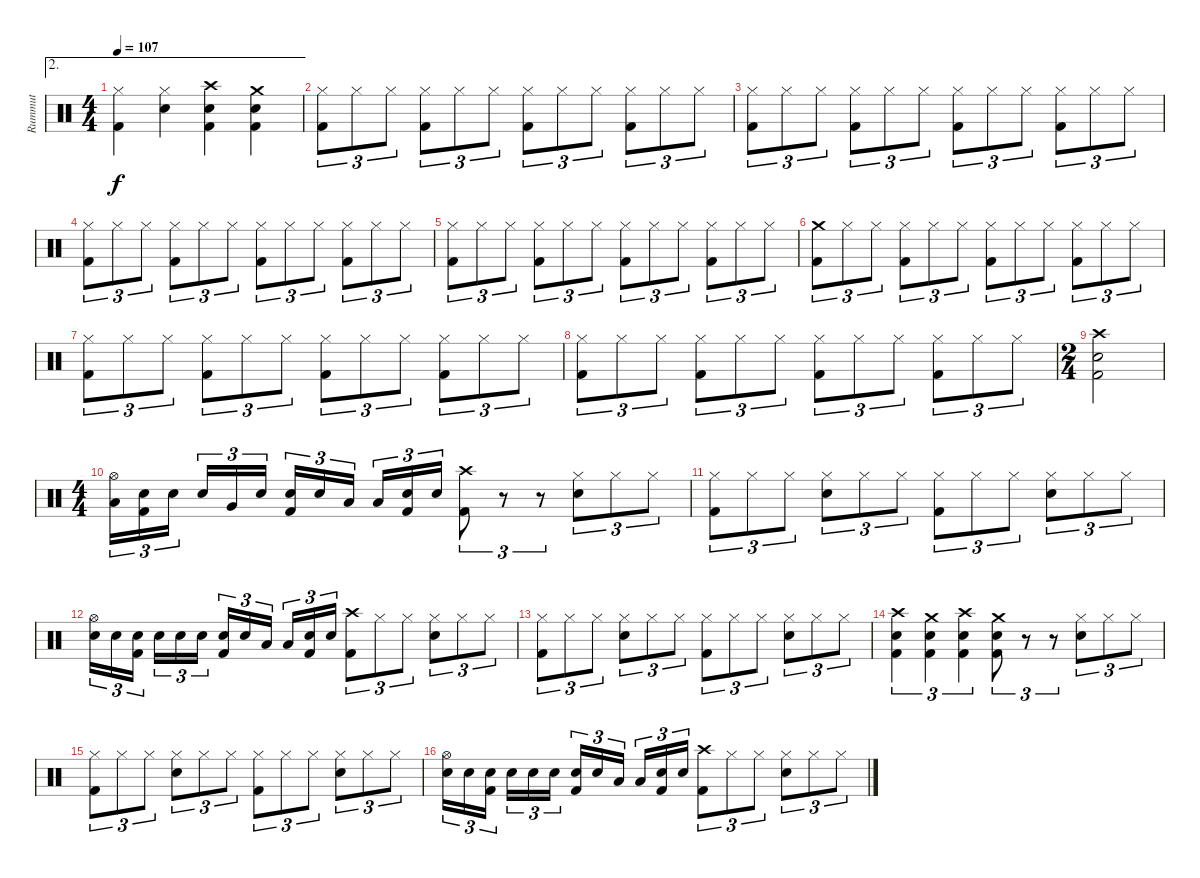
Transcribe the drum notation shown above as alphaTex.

\track ("Rummut" "Rummut") {instrument percussion}
\staff {score}
\articulation defaults
\ae 2
\ts (4 4)
\tempo 107
\clef neutral
\ks c
("Hi-Hat (closed)" "Kick (hit) 2").4{dy f} ("Hi-Hat (closed)" "Snare (hit) 2").4 ("Crash high (hit)" "Snare (hit) 2" "Kick (hit) 2").4 ("Crash medium (hit)" "Snare (hit) 2" "Kick (hit) 2").4 |
("Hi-Hat (closed)" "Kick (hit) 2").8{tu (3 2)} "Hi-Hat (closed)".8{tu (3 2)} "Hi-Hat (closed)".8{tu (3 2)} ("Hi-Hat (closed)" "Kick (hit) 2").8{tu (3 2)} "Hi-Hat (closed)".8{tu (3 2)} "Hi-Hat (closed)".8{tu (3 2)} ("Hi-Hat (closed)" "Kick (hit) 2").8{tu (3 2)} "Hi-Hat (closed)".8{tu (3 2)} "Hi-Hat (closed)".8{tu (3 2)} ("Hi-Hat (closed)" "Kick (hit) 2").8{tu (3 2)} "Hi-Hat (closed)".8{tu (3 2)} "Hi-Hat (closed)".8{tu (3 2)} |
("Hi-Hat (closed)" "Kick (hit) 2").8{tu (3 2)} "Hi-Hat (closed)".8{tu (3 2)} "Hi-Hat (closed)".8{tu (3 2)} ("Hi-Hat (closed)" "Kick (hit) 2").8{tu (3 2)} "Hi-Hat (closed)".8{tu (3 2)} "Hi-Hat (closed)".8{tu (3 2)} ("Hi-Hat (closed)" "Kick (hit) 2").8{tu (3 2)} "Hi-Hat (closed)".8{tu (3 2)} "Hi-Hat (closed)".8{tu (3 2)} ("Hi-Hat (closed)" "Kick (hit) 2").8{tu (3 2)} "Hi-Hat (closed)".8{tu (3 2)} "Hi-Hat (closed)".8{tu (3 2)} |
("Hi-Hat (closed)" "Kick (hit) 2").8{tu (3 2)} "Hi-Hat (closed)".8{tu (3 2)} "Hi-Hat (closed)".8{tu (3 2)} ("Hi-Hat (closed)" "Kick (hit) 2").8{tu (3 2)} "Hi-Hat (closed)".8{tu (3 2)} "Hi-Hat (closed)".8{tu (3 2)} ("Hi-Hat (closed)" "Kick (hit) 2").8{tu (3 2)} "Hi-Hat (closed)".8{tu (3 2)} "Hi-Hat (closed)".8{tu (3 2)} ("Hi-Hat (closed)" "Kick (hit) 2").8{tu (3 2)} "Hi-Hat (closed)".8{tu (3 2)} "Hi-Hat (closed)".8{tu (3 2)} |
("Hi-Hat (closed)" "Kick (hit) 2").8{tu (3 2)} "Hi-Hat (closed)".8{tu (3 2)} "Hi-Hat (closed)".8{tu (3 2)} ("Hi-Hat (closed)" "Kick (hit) 2").8{tu (3 2)} "Hi-Hat (closed)".8{tu (3 2)} "Hi-Hat (closed)".8{tu (3 2)} ("Hi-Hat (closed)" "Kick (hit) 2").8{tu (3 2)} "Hi-Hat (closed)".8{tu (3 2)} "Hi-Hat (closed)".8{tu (3 2)} ("Hi-Hat (closed)" "Kick (hit) 2").8{tu (3 2)} "Hi-Hat (closed)".8{tu (3 2)} "Hi-Hat (closed)".8{tu (3 2)} |
("Crash medium (hit)" "Kick (hit) 2").8{tu (3 2)} "Hi-Hat (closed)".8{tu (3 2)} "Hi-Hat (closed)".8{tu (3 2)} ("Hi-Hat (closed)" "Kick (hit) 2").8{tu (3 2)} "Hi-Hat (closed)".8{tu (3 2)} "Hi-Hat (closed)".8{tu (3 2)} ("Hi-Hat (closed)" "Kick (hit) 2").8{tu (3 2)} "Hi-Hat (closed)".8{tu (3 2)} "Hi-Hat (closed)".8{tu (3 2)} ("Hi-Hat (closed)" "Kick (hit) 2").8{tu (3 2)} "Hi-Hat (closed)".8{tu (3 2)} "Hi-Hat (closed)".8{tu (3 2)} |
("Hi-Hat (closed)" "Kick (hit) 2").8{tu (3 2)} "Hi-Hat (closed)".8{tu (3 2)} "Hi-Hat (closed)".8{tu (3 2)} ("Hi-Hat (closed)" "Kick (hit) 2").8{tu (3 2)} "Hi-Hat (closed)".8{tu (3 2)} "Hi-Hat (closed)".8{tu (3 2)} ("Hi-Hat (closed)" "Kick (hit) 2").8{tu (3 2)} "Hi-Hat (closed)".8{tu (3 2)} "Hi-Hat (closed)".8{tu (3 2)} ("Hi-Hat (closed)" "Kick (hit) 2").8{tu (3 2)} "Hi-Hat (closed)".8{tu (3 2)} "Hi-Hat (closed)".8{tu (3 2)} |
("Hi-Hat (closed)" "Kick (hit) 2").8{tu (3 2)} "Hi-Hat (closed)".8{tu (3 2)} "Hi-Hat (closed)".8{tu (3 2)} ("Hi-Hat (closed)" "Kick (hit) 2").8{tu (3 2)} "Hi-Hat (closed)".8{tu (3 2)} "Hi-Hat (closed)".8{tu (3 2)} ("Hi-Hat (closed)" "Kick (hit) 2").8{tu (3 2)} "Hi-Hat (closed)".8{tu (3 2)} "Hi-Hat (closed)".8{tu (3 2)} ("Hi-Hat (closed)" "Kick (hit) 2").8{tu (3 2)} "Hi-Hat (closed)".8{tu (3 2)} "Hi-Hat (closed)".8{tu (3 2)} |
\ts (2 4)
("Crash high (hit)" "Snare (hit) 2" "Kick (hit) 2").2 |
\ts (4 4)
("Hi-Hat (open)" "Low Tom (hit)").16{tu (3 2)} ("Snare (hit)" "Kick (hit) 2").16{tu (3 2)} "Snare (hit)".16{tu (3 2)} "Snare (hit)".16{tu (3 2)} "Very Low Tom (hit)".16{tu (3 2)} "Snare (hit)".16{tu (3 2)} ("Snare (hit)" "Kick (hit) 2").16{tu (3 2)} "Snare (hit)".16{tu (3 2)} "Low Floor Tom (hit)".16{tu (3 2)} "Low Floor Tom (hit)".16{tu (3 2)} ("Snare (hit)" "Kick (hit) 2").16{tu (3 2)} "Snare (hit)".16{tu (3 2)} ("Crash high (hit)" "Kick (hit) 2").8{tu (3 2)} r.8{tu (3 2)} r.8{tu (3 2)} ("Hi-Hat (closed)" "Snare (hit) 2").8{tu (3 2)} "Hi-Hat (closed)".8{tu (3 2)} "Hi-Hat (closed)".8{tu (3 2)} |
("Hi-Hat (closed)" "Kick (hit) 2").8{tu (3 2)} "Hi-Hat (closed)".8{tu (3 2)} "Hi-Hat (closed)".8{tu (3 2)} ("Hi-Hat (closed)" "Snare (hit) 2").8{tu (3 2)} "Hi-Hat (closed)".8{tu (3 2)} "Hi-Hat (closed)".8{tu (3 2)} ("Hi-Hat (closed)" "Kick (hit) 2").8{tu (3 2)} "Hi-Hat (closed)".8{tu (3 2)} "Hi-Hat (closed)".8{tu (3 2)} ("Hi-Hat (closed)" "Snare (hit) 2").8{tu (3 2)} "Hi-Hat (closed)".8{tu (3 2)} "Hi-Hat (closed)".8{tu (3 2)} |
("Hi-Hat (open)" "Snare (hit) 2").16{tu (3 2)} "Snare (hit)".16{tu (3 2)} ("Snare (hit)" "Kick (hit) 2").16{tu (3 2)} "Snare (hit)".16{tu (3 2)} "Snare (hit) 2".16{tu (3 2)} "Snare (hit)".16{tu (3 2)} ("Snare (hit)" "Kick (hit) 2").16{tu (3 2)} "Snare (hit)".16{tu (3 2)} "Low Tom (hit)".16{tu (3 2)} "Low Tom (hit)".16{tu (3 2)} ("Snare (hit)" "Kick (hit) 2").16{tu (3 2)} "Snare (hit)".16{tu (3 2)} ("Crash high (hit)" "Kick (hit) 2").8{tu (3 2)} "Hi-Hat (closed)".8{tu (3 2)} "Hi-Hat (closed)".8{tu (3 2)} ("Hi-Hat (closed)" "Snare (hit) 2").8{tu (3 2)} "Hi-Hat (closed)".8{tu (3 2)} "Hi-Hat (closed)".8{tu (3 2)} |
("Hi-Hat (closed)" "Kick (hit) 2").8{tu (3 2)} "Hi-Hat (closed)".8{tu (3 2)} "Hi-Hat (closed)".8{tu (3 2)} ("Hi-Hat (closed)" "Snare (hit) 2").8{tu (3 2)} "Hi-Hat (closed)".8{tu (3 2)} "Hi-Hat (closed)".8{tu (3 2)} ("Hi-Hat (closed)" "Kick (hit) 2").8{tu (3 2)} "Hi-Hat (closed)".8{tu (3 2)} "Hi-Hat (closed)".8{tu (3 2)} ("Hi-Hat (closed)" "Snare (hit) 2").8{tu (3 2)} "Hi-Hat (closed)".8{tu (3 2)} "Hi-Hat (closed)".8{tu (3 2)} |
("Crash high (hit)" "Snare (hit) 2" "Kick (hit) 2").4{tu (3 2)} ("Crash medium (hit)" "Snare (hit) 2" "Kick (hit) 2").4{tu (3 2)} ("Crash high (hit)" "Snare (hit) 2" "Kick (hit) 2").4{tu (3 2)} ("Crash medium (hit)" "Snare (hit) 2" "Kick (hit) 2").8{tu (3 2)} r.8{tu (3 2)} r.8{tu (3 2)} ("Hi-Hat (closed)" "Snare (hit) 2").8{tu (3 2)} "Hi-Hat (closed)".8{tu (3 2)} "Hi-Hat (closed)".8{tu (3 2)} |
("Hi-Hat (closed)" "Kick (hit) 2").8{tu (3 2)} "Hi-Hat (closed)".8{tu (3 2)} "Hi-Hat (closed)".8{tu (3 2)} ("Hi-Hat (closed)" "Snare (hit) 2").8{tu (3 2)} "Hi-Hat (closed)".8{tu (3 2)} "Hi-Hat (closed)".8{tu (3 2)} ("Hi-Hat (closed)" "Kick (hit) 2").8{tu (3 2)} "Hi-Hat (closed)".8{tu (3 2)} "Hi-Hat (closed)".8{tu (3 2)} ("Hi-Hat (closed)" "Snare (hit) 2").8{tu (3 2)} "Hi-Hat (closed)".8{tu (3 2)} "Hi-Hat (closed)".8{tu (3 2)} |
("Hi-Hat (open)" "Snare (hit) 2").16{tu (3 2)} "Snare (hit)".16{tu (3 2)} ("Snare (hit)" "Kick (hit) 2").16{tu (3 2)} "Snare (hit)".16{tu (3 2)} "Snare (hit) 2".16{tu (3 2)} "Snare (hit)".16{tu (3 2)} ("Snare (hit)" "Kick (hit) 2").16{tu (3 2)} "Snare (hit)".16{tu (3 2)} "Low Tom (hit)".16{tu (3 2)} "Low Tom (hit)".16{tu (3 2)} ("Snare (hit)" "Kick (hit) 2").16{tu (3 2)} "Snare (hit)".16{tu (3 2)} ("Crash high (hit)" "Kick (hit) 2").8{tu (3 2)} "Hi-Hat (closed)".8{tu (3 2)} "Hi-Hat (closed)".8{tu (3 2)} ("Hi-Hat (closed)" "Snare (hit) 2").8{tu (3 2)} "Hi-Hat (closed)".8{tu (3 2)} "Hi-Hat (closed)".8{tu (3 2)}
